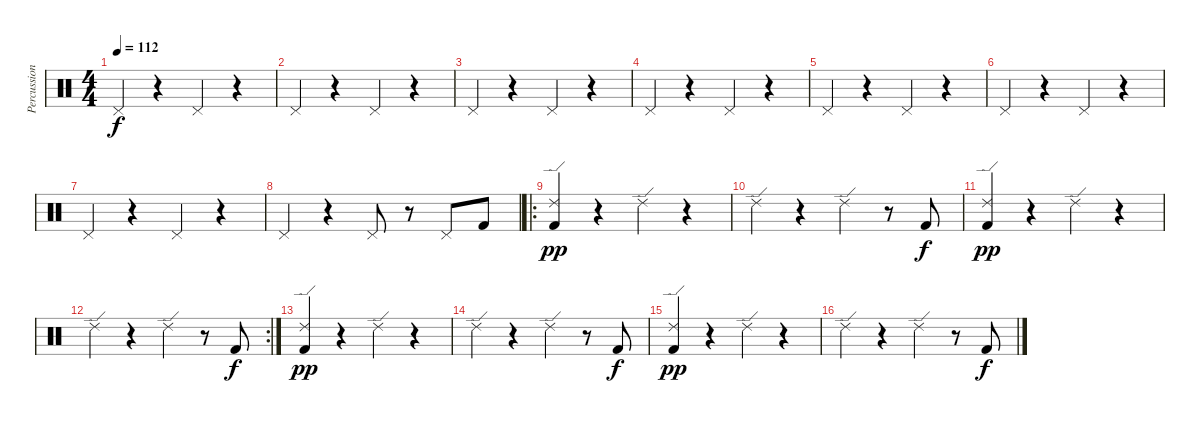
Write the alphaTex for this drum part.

\track ("Percussion" "Percussion") {instrument percussion}
\staff {score}
\articulation defaults
\ts (4 4)
\tempo 112
\clef neutral
\ks c "Pedal Hi-Hat (hit)".4{dy f}
r.4 "Pedal Hi-Hat (hit)".4 r.4 |
"Pedal Hi-Hat (hit)".4 r.4 "Pedal Hi-Hat (hit)".4 r.4 |
"Pedal Hi-Hat (hit)".4 r.4 "Pedal Hi-Hat (hit)".4 r.4 |
"Pedal Hi-Hat (hit)".4 r.4 "Pedal Hi-Hat (hit)".4 r.4 |
"Pedal Hi-Hat (hit)".4 r.4 "Pedal Hi-Hat (hit)".4 r.4 |
"Pedal Hi-Hat (hit)".4 r.4 "Pedal Hi-Hat (hit)".4 r.4 |
"Pedal Hi-Hat (hit)".4 r.4 "Pedal Hi-Hat (hit)".4 r.4 |
"Pedal Hi-Hat (hit)".4 r.4 "Pedal Hi-Hat (hit)".8 r.8 "Pedal Hi-Hat (hit)".8 "Kick (hit) 2".8 |
\ro
("Ride (edge) 2" "Kick (hit) 2").4{dy pp} r.4 "Ride (edge) 2".4 r.4 |
"Ride (edge) 2".4 r.4 "Ride (edge) 2".4 r.8 "Kick (hit) 2".8{dy f} |
("Ride (edge) 2" "Kick (hit) 2").4{dy pp} r.4 "Ride (edge) 2".4 r.4 |
\rc 2 "Ride (edge) 2".4
r.4 "Ride (edge) 2".4 r.8 "Kick (hit) 2".8{dy f} |
("Ride (edge) 2" "Kick (hit) 2").4{dy pp} r.4 "Ride (edge) 2".4 r.4 |
"Ride (edge) 2".4 r.4 "Ride (edge) 2".4 r.8 "Kick (hit) 2".8{dy f} |
("Ride (edge) 2" "Kick (hit) 2").4{dy pp} r.4 "Ride (edge) 2".4 r.4 |
"Ride (edge) 2".4 r.4 "Ride (edge) 2".4 r.8 "Kick (hit) 2".8{dy f}
